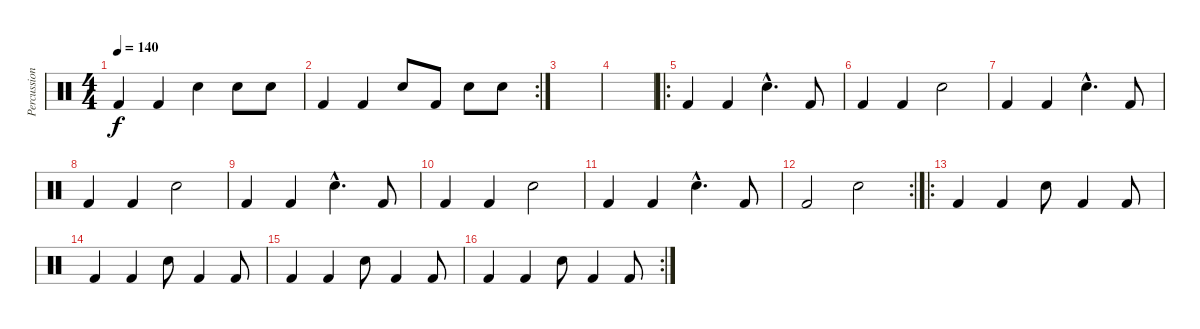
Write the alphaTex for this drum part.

\track ("Percussions" "Percussion") {instrument percussion}
\staff {score}
\articulation defaults
\ts (4 4)
\tempo 140
\clef neutral
\ks c "Kick (hit) 2".4{dy f} "Kick (hit) 2".4 "Snare (hit) 2".4 "Snare (hit) 2".8 "Snare (hit) 2".8
|
\rc 2 "Kick (hit) 2".4 "Kick (hit) 2".4 "Snare (hit) 2".8 "Kick (hit) 2".8 "Snare (hit) 2".8 "Snare (hit) 2".8
|
|
|
\ro "Kick (hit) 2".4 "Kick (hit) 2".4 "Electric Snare (hit)"{hac}.4{d} "Kick (hit) 2".8
|
"Kick (hit) 2".4 "Kick (hit) 2".4 "Electric Snare (hit)".2 |
"Kick (hit) 2".4 "Kick (hit) 2".4 "Electric Snare (hit)"{hac}.4{d} "Kick (hit) 2".8 |
"Kick (hit) 2".4 "Kick (hit) 2".4 "Electric Snare (hit)".2 |
"Kick (hit) 2".4 "Kick (hit) 2".4 "Electric Snare (hit)"{hac}.4{d} "Kick (hit) 2".8 |
"Kick (hit) 2".4 "Kick (hit) 2".4 "Electric Snare (hit)".2 |
"Kick (hit) 2".4 "Kick (hit) 2".4 "Electric Snare (hit)"{hac}.4{d} "Kick (hit) 2".8 |
\rc 2 "Kick (hit) 2".2 "Electric Snare (hit)".2
|
\ro "Kick (hit) 2".4 "Kick (hit) 2".4 "Snare (hit) 2".8 "Kick (hit) 2".4 "Kick (hit) 2".8
|
"Kick (hit) 2".4 "Kick (hit) 2".4 "Snare (hit) 2".8 "Kick (hit) 2".4 "Kick (hit) 2".8 |
"Kick (hit) 2".4 "Kick (hit) 2".4 "Snare (hit) 2".8 "Kick (hit) 2".4 "Kick (hit) 2".8 |
\rc 2 "Kick (hit) 2".4 "Kick (hit) 2".4 "Snare (hit) 2".8 "Kick (hit) 2".4 "Kick (hit) 2".8
